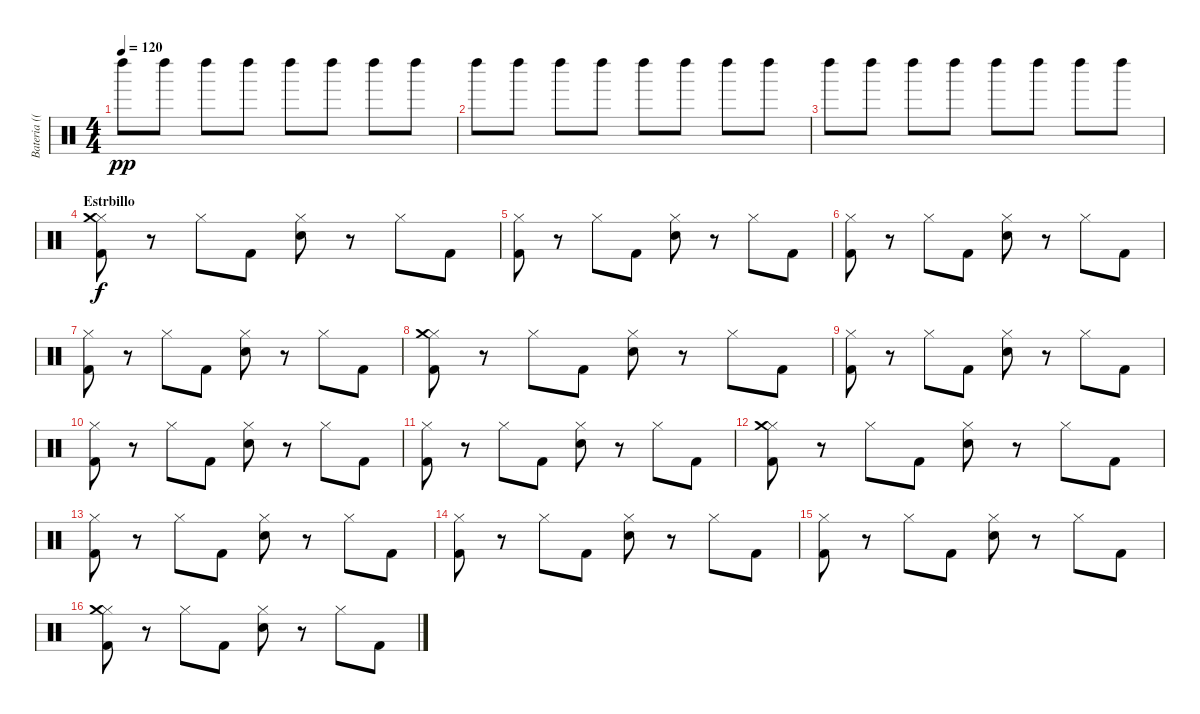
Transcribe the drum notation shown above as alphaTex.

\track ("Bateria ((Matt))" "Bateria ((") {instrument percussion}
\staff {score}
\articulation defaults
\ts (4 4)
\tempo 120
\clef neutral
\ks c "Left Maraca (hit)".8{dy pp} "Left Maraca (hit)".8 "Left Maraca (hit)".8 "Left Maraca (hit)".8 "Left Maraca (hit)".8 "Left Maraca (hit)".8 "Left Maraca (hit)".8 "Left Maraca (hit)".8
|
"Left Maraca (hit)".8 "Left Maraca (hit)".8 "Left Maraca (hit)".8 "Left Maraca (hit)".8 "Left Maraca (hit)".8 "Left Maraca (hit)".8 "Left Maraca (hit)".8 "Left Maraca (hit)".8 |
"Left Maraca (hit)".8 "Left Maraca (hit)".8 "Left Maraca (hit)".8 "Left Maraca (hit)".8 "Left Maraca (hit)".8 "Left Maraca (hit)".8 "Left Maraca (hit)".8 "Left Maraca (hit)".8 |
\section ("" "Estrbillo")
("Hi-Hat (closed)" "Crash medium (hit)" "Kick (hit) 2").8{dy f} r.8 "Hi-Hat (closed)".8 "Kick (hit) 2".8 ("Hi-Hat (closed)" "Electric Snare (hit)").8 r.8 "Hi-Hat (closed)".8 "Kick (hit) 2".8 |
("Hi-Hat (closed)" "Kick (hit) 2").8 r.8 "Hi-Hat (closed)".8 "Kick (hit) 2".8 ("Hi-Hat (closed)" "Electric Snare (hit)").8 r.8 "Hi-Hat (closed)".8 "Kick (hit) 2".8 |
("Hi-Hat (closed)" "Kick (hit) 2").8 r.8 "Hi-Hat (closed)".8 "Kick (hit) 2".8 ("Hi-Hat (closed)" "Electric Snare (hit)").8 r.8 "Hi-Hat (closed)".8 "Kick (hit) 2".8 |
("Hi-Hat (closed)" "Kick (hit) 2").8 r.8 "Hi-Hat (closed)".8 "Kick (hit) 2".8 ("Hi-Hat (closed)" "Electric Snare (hit)").8 r.8 "Hi-Hat (closed)".8 "Kick (hit) 2".8 |
("Hi-Hat (closed)" "Crash medium (hit)" "Kick (hit) 2").8 r.8 "Hi-Hat (closed)".8 "Kick (hit) 2".8 ("Hi-Hat (closed)" "Electric Snare (hit)").8 r.8 "Hi-Hat (closed)".8 "Kick (hit) 2".8 |
("Hi-Hat (closed)" "Kick (hit) 2").8 r.8 "Hi-Hat (closed)".8 "Kick (hit) 2".8 ("Hi-Hat (closed)" "Electric Snare (hit)").8 r.8 "Hi-Hat (closed)".8 "Kick (hit) 2".8 |
("Hi-Hat (closed)" "Kick (hit) 2").8 r.8 "Hi-Hat (closed)".8 "Kick (hit) 2".8 ("Hi-Hat (closed)" "Electric Snare (hit)").8 r.8 "Hi-Hat (closed)".8 "Kick (hit) 2".8 |
("Hi-Hat (closed)" "Kick (hit) 2").8 r.8 "Hi-Hat (closed)".8 "Kick (hit) 2".8 ("Hi-Hat (closed)" "Electric Snare (hit)").8 r.8 "Hi-Hat (closed)".8 "Kick (hit) 2".8 |
("Hi-Hat (closed)" "Crash medium (hit)" "Kick (hit) 2").8 r.8 "Hi-Hat (closed)".8 "Kick (hit) 2".8 ("Hi-Hat (closed)" "Electric Snare (hit)").8 r.8 "Hi-Hat (closed)".8 "Kick (hit) 2".8 |
("Hi-Hat (closed)" "Kick (hit) 2").8 r.8 "Hi-Hat (closed)".8 "Kick (hit) 2".8 ("Hi-Hat (closed)" "Electric Snare (hit)").8 r.8 "Hi-Hat (closed)".8 "Kick (hit) 2".8 |
("Hi-Hat (closed)" "Kick (hit) 2").8 r.8 "Hi-Hat (closed)".8 "Kick (hit) 2".8 ("Hi-Hat (closed)" "Electric Snare (hit)").8 r.8 "Hi-Hat (closed)".8 "Kick (hit) 2".8 |
("Hi-Hat (closed)" "Kick (hit) 2").8 r.8 "Hi-Hat (closed)".8 "Kick (hit) 2".8 ("Hi-Hat (closed)" "Electric Snare (hit)").8 r.8 "Hi-Hat (closed)".8 "Kick (hit) 2".8 |
("Hi-Hat (closed)" "Crash medium (hit)" "Kick (hit) 2").8 r.8 "Hi-Hat (closed)".8 "Kick (hit) 2".8 ("Hi-Hat (closed)" "Electric Snare (hit)").8 r.8 "Hi-Hat (closed)".8 "Kick (hit) 2".8
